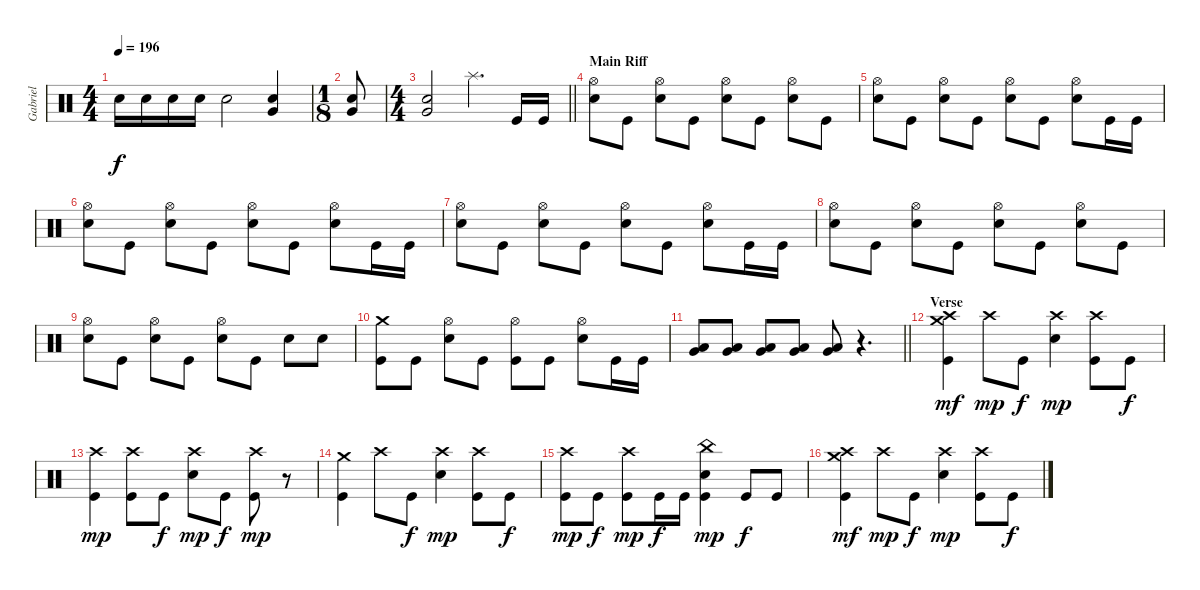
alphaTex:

\track ("Gabriel" "Gabriel") {instrument percussion}
\staff {score}
\articulation defaults
\ts (4 4)
\tempo 196
\clef neutral
\ks aminor "Snare (hit) 2".16{dy f} "Snare (hit) 2".16 "Snare (hit) 2".16 "Snare (hit) 2".16 "Snare (hit) 2".2
("Very Low Tom (hit)" "Snare (hit) 2").4 |
\ts (1 8)
("Very Low Tom (hit)" "Snare (hit) 2").8 |
\ts (4 4)
\barLineRight lightlight
("Very Low Tom (hit)" "Snare (hit) 2").2 "Splash (hit)".4{d} "Kick (hit)".16 "Kick (hit)".16 |
\section ("" "Main Riff")
("Hi-Hat (open)" "Snare (hit) 2").8 "Kick (hit)".8 ("Hi-Hat (open)" "Snare (hit) 2").8 "Kick (hit)".8 ("Hi-Hat (open)" "Snare (hit) 2").8 "Kick (hit)".8 ("Hi-Hat (open)" "Snare (hit) 2").8 "Kick (hit)".8 |
("Hi-Hat (open)" "Snare (hit) 2").8 "Kick (hit)".8 ("Hi-Hat (open)" "Snare (hit) 2").8 "Kick (hit)".8 ("Hi-Hat (open)" "Snare (hit) 2").8 "Kick (hit)".8 ("Hi-Hat (open)" "Snare (hit) 2").8 "Kick (hit)".16 "Kick (hit)".16 |
("Hi-Hat (open)" "Snare (hit) 2").8 "Kick (hit)".8 ("Hi-Hat (open)" "Snare (hit) 2").8 "Kick (hit)".8 ("Hi-Hat (open)" "Snare (hit) 2").8 "Kick (hit)".8 ("Hi-Hat (open)" "Snare (hit) 2").8 "Kick (hit)".16 "Kick (hit)".16 |
("Hi-Hat (open)" "Snare (hit) 2").8 "Kick (hit)".8 ("Hi-Hat (open)" "Snare (hit) 2").8 "Kick (hit)".8 ("Hi-Hat (open)" "Snare (hit) 2").8 "Kick (hit)".8 ("Hi-Hat (open)" "Snare (hit) 2").8 "Kick (hit)".16 "Kick (hit)".16 |
("Hi-Hat (open)" "Snare (hit) 2").8 "Kick (hit)".8 ("Hi-Hat (open)" "Snare (hit) 2").8 "Kick (hit)".8 ("Hi-Hat (open)" "Snare (hit) 2").8 "Kick (hit)".8 ("Hi-Hat (open)" "Snare (hit) 2").8 "Kick (hit)".8 |
("Hi-Hat (open)" "Snare (hit) 2").8 "Kick (hit)".8 ("Hi-Hat (open)" "Snare (hit) 2").8 "Kick (hit)".8 ("Hi-Hat (open)" "Snare (hit) 2").8 "Kick (hit)".8 "Snare (hit) 2".8 "Snare (hit) 2".8 |
("Crash medium (hit)" "Kick (hit)").8 "Kick (hit)".8 ("Hi-Hat (open)" "Snare (hit) 2").8 "Kick (hit)".8 ("Hi-Hat (open)" "Kick (hit)").8 "Kick (hit)".8 ("Hi-Hat (open)" "Snare (hit) 2").8 "Kick (hit)".16 "Kick (hit)".16 |
\barLineRight lightlight
("Very Low Tom (hit)" "Low Tom (hit)").8 ("Very Low Tom (hit)" "Low Tom (hit)").8 ("Very Low Tom (hit)" "Low Tom (hit)").8 ("Very Low Tom (hit)" "Low Tom (hit)").8 ("Very Low Tom (hit)" "Low Tom (hit)").8 r.4{d} |
\section ("" "Verse")
("Crash high (hit)" "Crash medium (hit)" "Kick (hit)").4{dy mf} "Crash high (hit)".8{dy mp} "Kick (hit)".8{dy f} ("Crash high (hit)" "Snare (hit) 2").4{dy mp} ("Crash high (hit)" "Kick (hit)").8 "Kick (hit)".8{dy f} |
("Crash high (hit)" "Kick (hit)").4{dy mp} ("Crash high (hit)" "Kick (hit)").8 "Kick (hit)".8{dy f} ("Crash high (hit)" "Snare (hit) 2").8{dy mp} "Kick (hit)".8{dy f} ("Crash high (hit)" "Kick (hit)").8{dy mp} r.8 |
("Crash medium (hit)" "Kick (hit)").4 "Crash high (hit)".8 "Kick (hit)".8{dy f} ("Crash high (hit)" "Snare (hit) 2").4{dy mp} ("Crash high (hit)" "Kick (hit)").8 "Kick (hit)".8{dy f} |
("Crash high (hit)" "Kick (hit)").8{dy mp} "Kick (hit)".8{dy f} ("Crash high (hit)" "Kick (hit)").8{dy mp} "Kick (hit)".16{dy f} "Kick (hit)".16 ("China (hit)" "Snare (hit) 2" "Kick (hit)").4{dy mp} "Kick (hit)".8{dy f} "Kick (hit)".8 |
("Crash high (hit)" "Crash medium (hit)" "Kick (hit)").4{dy mf} "Crash high (hit)".8{dy mp} "Kick (hit)".8{dy f} ("Crash high (hit)" "Snare (hit) 2").4{dy mp} ("Crash high (hit)" "Kick (hit)").8 "Kick (hit)".8{dy f}
